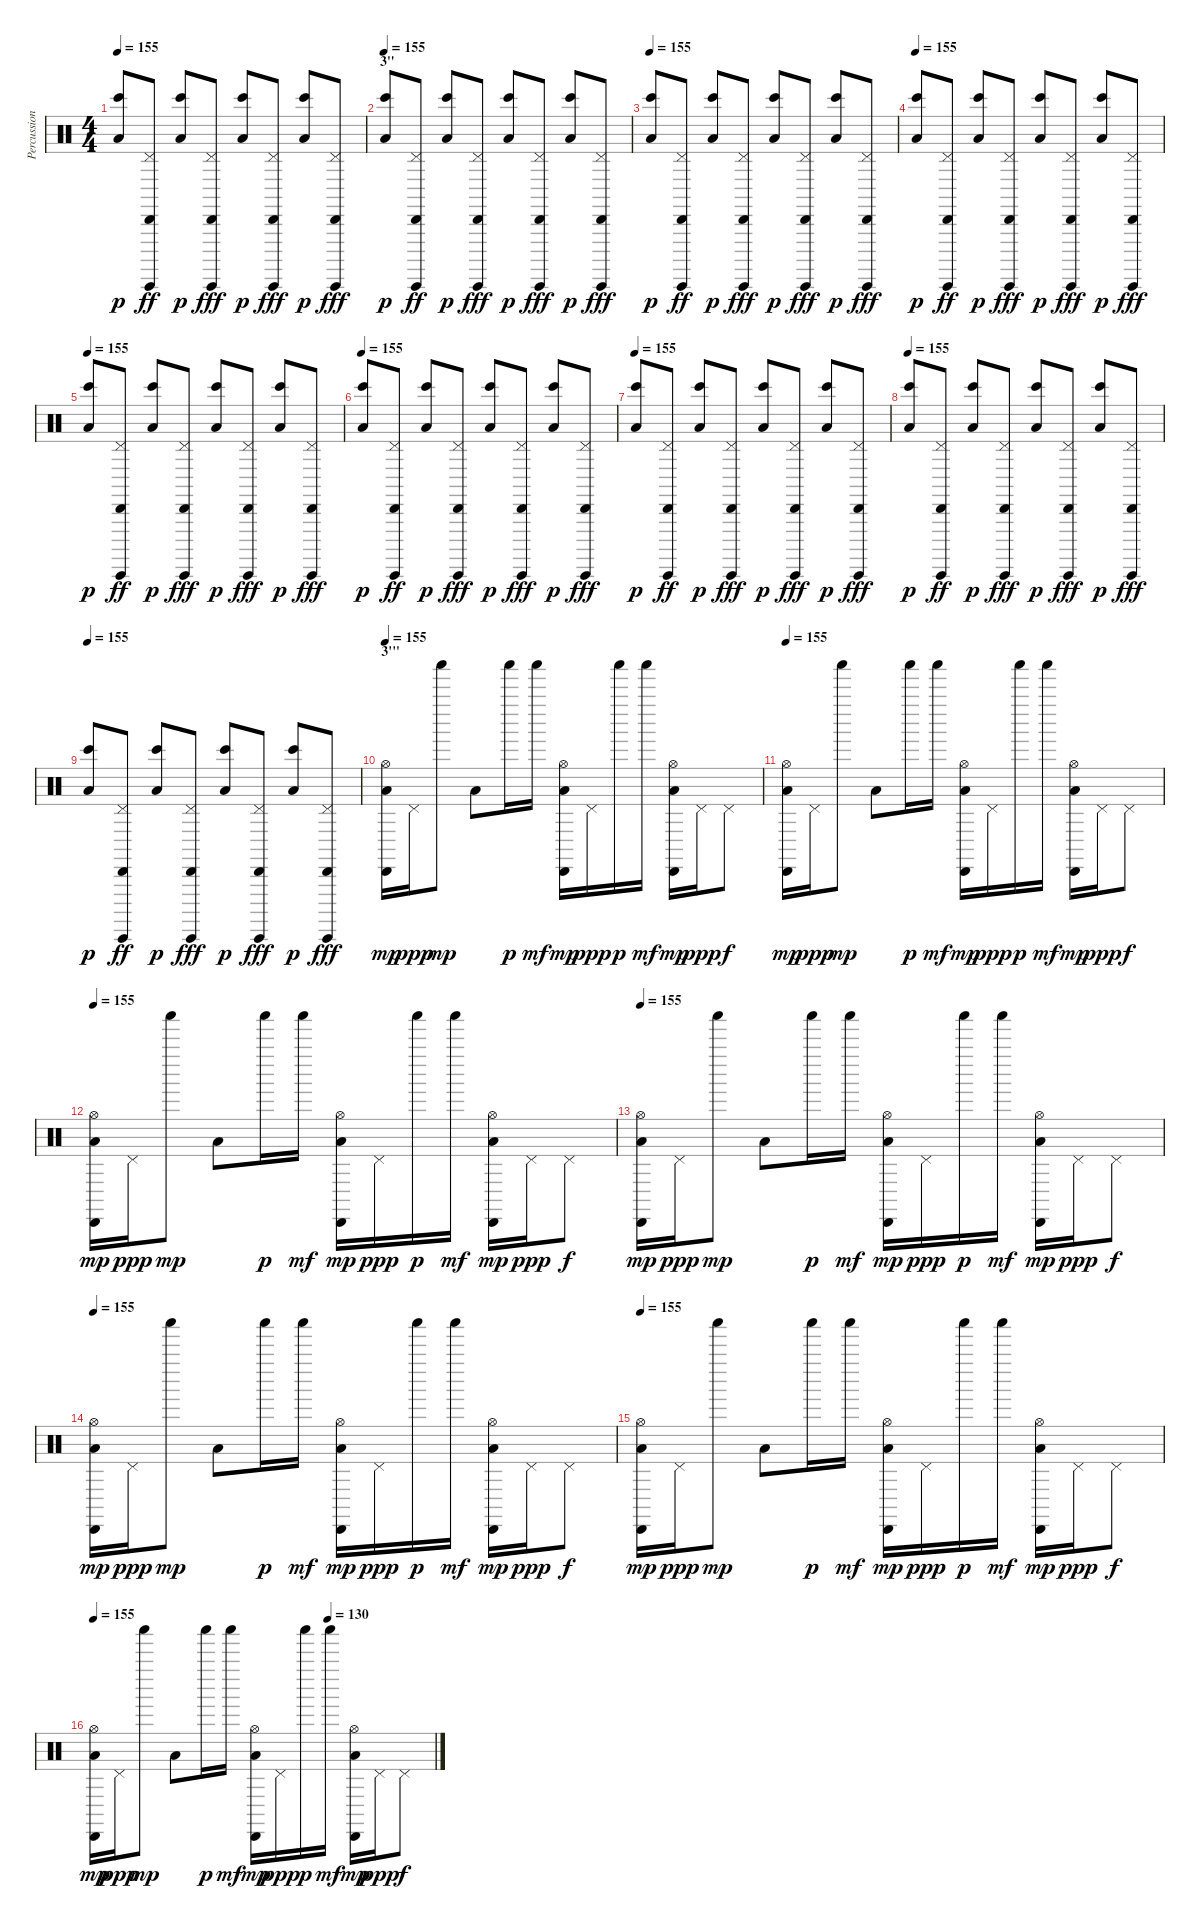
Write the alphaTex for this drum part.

\track ("Percussions" "Percussion") {instrument percussion}
\staff {score}
\articulation defaults
\ts (4 4)
\tempo 155
\clef neutral
\ks c
("Bongo High (hit)" "Low Floor Tom (hit)").8{dy p} ("Pedal Hi-Hat (hit)" "Cabasa (hit)" "Guiro (hit)").8{dy ff} ("Bongo High (hit)" "Low Floor Tom (hit)").8{dy p} ("Pedal Hi-Hat (hit)" "Cabasa (hit)" "Guiro (hit)").8{dy fff} ("Bongo High (hit)" "Low Floor Tom (hit)").8{dy p} ("Pedal Hi-Hat (hit)" "Cabasa (hit)" "Guiro (hit)").8{dy fff} ("Bongo High (hit)" "Low Floor Tom (hit)").8{dy p} ("Pedal Hi-Hat (hit)" "Cabasa (hit)" "Guiro (hit)").8{dy fff} |
\section ("" "3''")
\tempo 155
("Bongo High (hit)" "Low Floor Tom (hit)").8{dy p} ("Pedal Hi-Hat (hit)" "Cabasa (hit)" "Guiro (hit)").8{dy ff} ("Bongo High (hit)" "Low Floor Tom (hit)").8{dy p} ("Pedal Hi-Hat (hit)" "Cabasa (hit)" "Guiro (hit)").8{dy fff} ("Bongo High (hit)" "Low Floor Tom (hit)").8{dy p} ("Pedal Hi-Hat (hit)" "Cabasa (hit)" "Guiro (hit)").8{dy fff} ("Bongo High (hit)" "Low Floor Tom (hit)").8{dy p} ("Pedal Hi-Hat (hit)" "Cabasa (hit)" "Guiro (hit)").8{dy fff} |
\tempo 155
("Bongo High (hit)" "Low Floor Tom (hit)").8{dy p} ("Pedal Hi-Hat (hit)" "Cabasa (hit)" "Guiro (hit)").8{dy ff} ("Bongo High (hit)" "Low Floor Tom (hit)").8{dy p} ("Pedal Hi-Hat (hit)" "Cabasa (hit)" "Guiro (hit)").8{dy fff} ("Bongo High (hit)" "Low Floor Tom (hit)").8{dy p} ("Pedal Hi-Hat (hit)" "Cabasa (hit)" "Guiro (hit)").8{dy fff} ("Bongo High (hit)" "Low Floor Tom (hit)").8{dy p} ("Pedal Hi-Hat (hit)" "Cabasa (hit)" "Guiro (hit)").8{dy fff} |
\tempo 155
("Bongo High (hit)" "Low Floor Tom (hit)").8{dy p} ("Pedal Hi-Hat (hit)" "Cabasa (hit)" "Guiro (hit)").8{dy ff} ("Bongo High (hit)" "Low Floor Tom (hit)").8{dy p} ("Pedal Hi-Hat (hit)" "Cabasa (hit)" "Guiro (hit)").8{dy fff} ("Bongo High (hit)" "Low Floor Tom (hit)").8{dy p} ("Pedal Hi-Hat (hit)" "Cabasa (hit)" "Guiro (hit)").8{dy fff} ("Bongo High (hit)" "Low Floor Tom (hit)").8{dy p} ("Pedal Hi-Hat (hit)" "Cabasa (hit)" "Guiro (hit)").8{dy fff} |
\tempo 155
("Bongo High (hit)" "Low Floor Tom (hit)").8{dy p} ("Pedal Hi-Hat (hit)" "Cabasa (hit)" "Guiro (hit)").8{dy ff} ("Bongo High (hit)" "Low Floor Tom (hit)").8{dy p} ("Pedal Hi-Hat (hit)" "Cabasa (hit)" "Guiro (hit)").8{dy fff} ("Bongo High (hit)" "Low Floor Tom (hit)").8{dy p} ("Pedal Hi-Hat (hit)" "Cabasa (hit)" "Guiro (hit)").8{dy fff} ("Bongo High (hit)" "Low Floor Tom (hit)").8{dy p} ("Pedal Hi-Hat (hit)" "Cabasa (hit)" "Guiro (hit)").8{dy fff} |
\tempo 155
("Bongo High (hit)" "Low Floor Tom (hit)").8{dy p} ("Pedal Hi-Hat (hit)" "Cabasa (hit)" "Guiro (hit)").8{dy ff} ("Bongo High (hit)" "Low Floor Tom (hit)").8{dy p} ("Pedal Hi-Hat (hit)" "Cabasa (hit)" "Guiro (hit)").8{dy fff} ("Bongo High (hit)" "Low Floor Tom (hit)").8{dy p} ("Pedal Hi-Hat (hit)" "Cabasa (hit)" "Guiro (hit)").8{dy fff} ("Bongo High (hit)" "Low Floor Tom (hit)").8{dy p} ("Pedal Hi-Hat (hit)" "Cabasa (hit)" "Guiro (hit)").8{dy fff} |
\tempo 155
("Bongo High (hit)" "Low Floor Tom (hit)").8{dy p} ("Pedal Hi-Hat (hit)" "Cabasa (hit)" "Guiro (hit)").8{dy ff} ("Bongo High (hit)" "Low Floor Tom (hit)").8{dy p} ("Pedal Hi-Hat (hit)" "Cabasa (hit)" "Guiro (hit)").8{dy fff} ("Bongo High (hit)" "Low Floor Tom (hit)").8{dy p} ("Pedal Hi-Hat (hit)" "Cabasa (hit)" "Guiro (hit)").8{dy fff} ("Bongo High (hit)" "Low Floor Tom (hit)").8{dy p} ("Pedal Hi-Hat (hit)" "Cabasa (hit)" "Guiro (hit)").8{dy fff} |
\tempo 155
("Bongo High (hit)" "Low Floor Tom (hit)").8{dy p} ("Pedal Hi-Hat (hit)" "Cabasa (hit)" "Guiro (hit)").8{dy ff} ("Bongo High (hit)" "Low Floor Tom (hit)").8{dy p} ("Pedal Hi-Hat (hit)" "Cabasa (hit)" "Guiro (hit)").8{dy fff} ("Bongo High (hit)" "Low Floor Tom (hit)").8{dy p} ("Pedal Hi-Hat (hit)" "Cabasa (hit)" "Guiro (hit)").8{dy fff} ("Bongo High (hit)" "Low Floor Tom (hit)").8{dy p} ("Pedal Hi-Hat (hit)" "Cabasa (hit)" "Guiro (hit)").8{dy fff} |
\tempo 155
("Bongo High (hit)" "Low Floor Tom (hit)").8{dy p} ("Pedal Hi-Hat (hit)" "Cabasa (hit)" "Guiro (hit)").8{dy ff} ("Bongo High (hit)" "Low Floor Tom (hit)").8{dy p} ("Pedal Hi-Hat (hit)" "Cabasa (hit)" "Guiro (hit)").8{dy fff} ("Bongo High (hit)" "Low Floor Tom (hit)").8{dy p} ("Pedal Hi-Hat (hit)" "Cabasa (hit)" "Guiro (hit)").8{dy fff} ("Bongo High (hit)" "Low Floor Tom (hit)").8{dy p} ("Pedal Hi-Hat (hit)" "Cabasa (hit)" "Guiro (hit)").8{dy fff} |
\section ("" "3'''")
\tempo 155
("Hi-Hat (open)" "Cabasa (hit)" "Low Floor Tom (hit)").16{dy mp} "Pedal Hi-Hat (hit)".16{dy ppp} "Shaker (hit)".8{dy mp} "Low Floor Tom (hit)".8 "Shaker (hit)".16{dy p} "Shaker (hit)".16{dy mf} ("Hi-Hat (open)" "Cabasa (hit)" "Low Floor Tom (hit)").16{dy mp} "Pedal Hi-Hat (hit)".16{dy ppp} "Shaker (hit)".16{dy p} "Shaker (hit)".16{dy mf} ("Hi-Hat (open)" "Cabasa (hit)" "Low Floor Tom (hit)").16{dy mp} "Pedal Hi-Hat (hit)".16{dy ppp} "Pedal Hi-Hat (hit)".8{dy f} |
\tempo 155
("Hi-Hat (open)" "Cabasa (hit)" "Low Floor Tom (hit)").16{dy mp} "Pedal Hi-Hat (hit)".16{dy ppp} "Shaker (hit)".8{dy mp} "Low Floor Tom (hit)".8 "Shaker (hit)".16{dy p} "Shaker (hit)".16{dy mf} ("Hi-Hat (open)" "Cabasa (hit)" "Low Floor Tom (hit)").16{dy mp} "Pedal Hi-Hat (hit)".16{dy ppp} "Shaker (hit)".16{dy p} "Shaker (hit)".16{dy mf} ("Hi-Hat (open)" "Cabasa (hit)" "Low Floor Tom (hit)").16{dy mp} "Pedal Hi-Hat (hit)".16{dy ppp} "Pedal Hi-Hat (hit)".8{dy f} |
\tempo 155
("Hi-Hat (open)" "Cabasa (hit)" "Low Floor Tom (hit)").16{dy mp} "Pedal Hi-Hat (hit)".16{dy ppp} "Shaker (hit)".8{dy mp} "Low Floor Tom (hit)".8 "Shaker (hit)".16{dy p} "Shaker (hit)".16{dy mf} ("Hi-Hat (open)" "Cabasa (hit)" "Low Floor Tom (hit)").16{dy mp} "Pedal Hi-Hat (hit)".16{dy ppp} "Shaker (hit)".16{dy p} "Shaker (hit)".16{dy mf} ("Hi-Hat (open)" "Cabasa (hit)" "Low Floor Tom (hit)").16{dy mp} "Pedal Hi-Hat (hit)".16{dy ppp} "Pedal Hi-Hat (hit)".8{dy f} |
\tempo 155
("Hi-Hat (open)" "Cabasa (hit)" "Low Floor Tom (hit)").16{dy mp} "Pedal Hi-Hat (hit)".16{dy ppp} "Shaker (hit)".8{dy mp} "Low Floor Tom (hit)".8 "Shaker (hit)".16{dy p} "Shaker (hit)".16{dy mf} ("Hi-Hat (open)" "Cabasa (hit)" "Low Floor Tom (hit)").16{dy mp} "Pedal Hi-Hat (hit)".16{dy ppp} "Shaker (hit)".16{dy p} "Shaker (hit)".16{dy mf} ("Hi-Hat (open)" "Cabasa (hit)" "Low Floor Tom (hit)").16{dy mp} "Pedal Hi-Hat (hit)".16{dy ppp} "Pedal Hi-Hat (hit)".8{dy f} |
\tempo 155
("Hi-Hat (open)" "Cabasa (hit)" "Low Floor Tom (hit)").16{dy mp} "Pedal Hi-Hat (hit)".16{dy ppp} "Shaker (hit)".8{dy mp} "Low Floor Tom (hit)".8 "Shaker (hit)".16{dy p} "Shaker (hit)".16{dy mf} ("Hi-Hat (open)" "Cabasa (hit)" "Low Floor Tom (hit)").16{dy mp} "Pedal Hi-Hat (hit)".16{dy ppp} "Shaker (hit)".16{dy p} "Shaker (hit)".16{dy mf} ("Hi-Hat (open)" "Cabasa (hit)" "Low Floor Tom (hit)").16{dy mp} "Pedal Hi-Hat (hit)".16{dy ppp} "Pedal Hi-Hat (hit)".8{dy f} |
\tempo 155
("Hi-Hat (open)" "Cabasa (hit)" "Low Floor Tom (hit)").16{dy mp} "Pedal Hi-Hat (hit)".16{dy ppp} "Shaker (hit)".8{dy mp} "Low Floor Tom (hit)".8 "Shaker (hit)".16{dy p} "Shaker (hit)".16{dy mf} ("Hi-Hat (open)" "Cabasa (hit)" "Low Floor Tom (hit)").16{dy mp} "Pedal Hi-Hat (hit)".16{dy ppp} "Shaker (hit)".16{dy p} "Shaker (hit)".16{dy mf} ("Hi-Hat (open)" "Cabasa (hit)" "Low Floor Tom (hit)").16{dy mp} "Pedal Hi-Hat (hit)".16{dy ppp} "Pedal Hi-Hat (hit)".8{dy f} |
\tempo 155
\tempo (130 0.6875)
("Hi-Hat (open)" "Cabasa (hit)" "Low Floor Tom (hit)").16{dy mp} "Pedal Hi-Hat (hit)".16{dy ppp} "Shaker (hit)".8{dy mp} "Low Floor Tom (hit)".8 "Shaker (hit)".16{dy p} "Shaker (hit)".16{dy mf} ("Hi-Hat (open)" "Cabasa (hit)" "Low Floor Tom (hit)").16{dy mp} "Pedal Hi-Hat (hit)".16{dy ppp} "Shaker (hit)".16{dy p} "Shaker (hit)".16{dy mf} ("Hi-Hat (open)" "Cabasa (hit)" "Low Floor Tom (hit)").16{dy mp} "Pedal Hi-Hat (hit)".16{dy ppp} "Pedal Hi-Hat (hit)".8{dy f}
